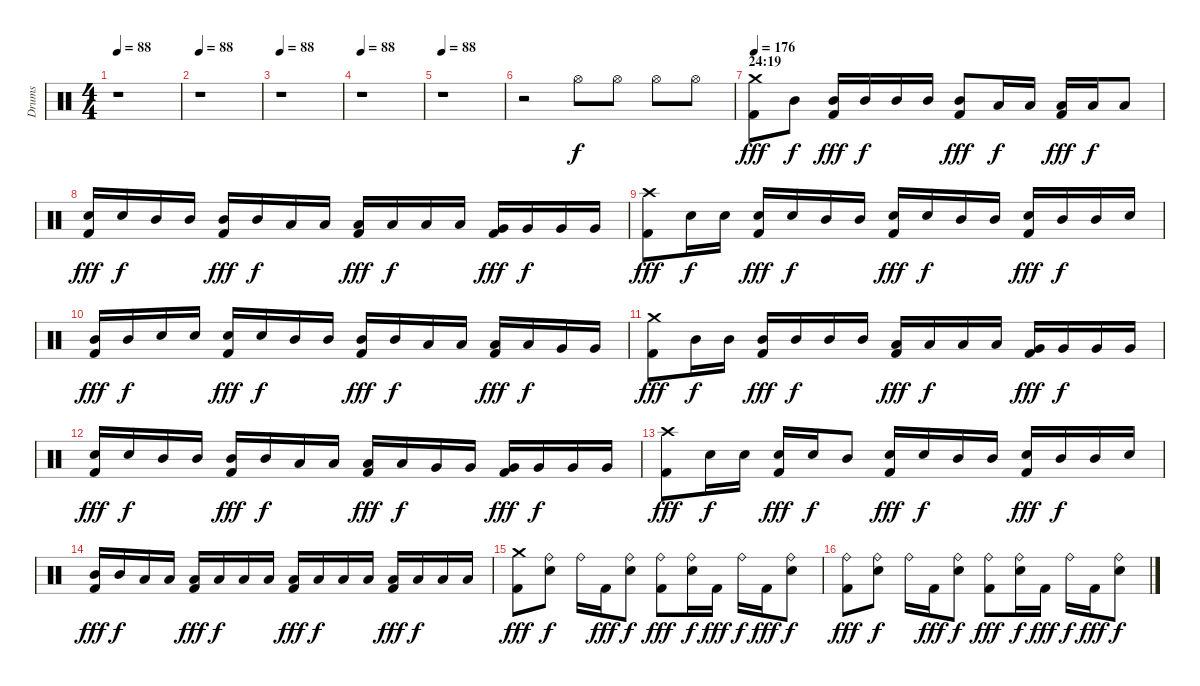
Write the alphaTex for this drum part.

\track ("Drums" "Drums") {instrument percussion}
\staff {score}
\articulation defaults
\ts (4 4)
\tempo 88
\clef neutral
\ks c
r.1{dy f} |
\tempo 88
r.1 |
\tempo 88
r.1 |
\tempo 88
r.1 |
\tempo 88
r.1 |
r.2 "Hi-Hat (open)".8 "Hi-Hat (open)".8 "Hi-Hat (open)".8 "Hi-Hat (open)".8 |
\section ("" "24:19")
\tempo 176
("Crash medium (hit)" "Kick (hit) 2").8{dy fff} "Mid Tom (hit)".8{dy f} ("Mid Tom (hit)" "Kick (hit) 2").16{dy fff} "Mid Tom (hit)".16{dy f} "Mid Tom (hit)".16 "Mid Tom (hit)".16 ("Mid Tom (hit)" "Kick (hit) 2").8{dy fff} "Low Tom (hit)".16{dy f} "Low Tom (hit)".16 ("Low Tom (hit)" "Kick (hit) 2").16{dy fff} "Low Tom (hit)".16{dy f} "Low Tom (hit)".8 |
("Snare (hit) 2" "Kick (hit) 2").16{dy fff} "Snare (hit) 2".16{dy f} "Mid Tom (hit)".16 "Mid Tom (hit)".16 ("Mid Tom (hit)" "Kick (hit) 2").16{dy fff} "Mid Tom (hit)".16{dy f} "Low Tom (hit)".16 "Low Tom (hit)".16 ("Low Tom (hit)" "Kick (hit) 2").16{dy fff} "Low Tom (hit)".16{dy f} "Low Tom (hit)".16 "Low Tom (hit)".16 ("Very Low Tom (hit)" "Kick (hit) 2").16{dy fff} "Very Low Tom (hit)".16{dy f} "Very Low Tom (hit)".16 "Very Low Tom (hit)".16 |
("Crash high (hit)" "Kick (hit) 2").8{dy fff} "Snare (hit) 2".16{dy f} "Snare (hit) 2".16 ("Snare (hit) 2" "Kick (hit) 2").16{dy fff} "Snare (hit) 2".16{dy f} "Mid Tom (hit)".16 "Mid Tom (hit)".16 ("Snare (hit) 2" "Kick (hit) 2").16{dy fff} "Snare (hit) 2".16{dy f} "Mid Tom (hit)".16 "Mid Tom (hit)".16 ("Snare (hit) 2" "Kick (hit) 2").16{dy fff} "Mid Tom (hit)".16{dy f} "Mid Tom (hit)".16 "Snare (hit) 2".16 |
("Mid Tom (hit)" "Kick (hit) 2").16{dy fff} "Mid Tom (hit)".16{dy f} "Snare (hit) 2".16 "Snare (hit) 2".16 ("Snare (hit) 2" "Kick (hit) 2").16{dy fff} "Snare (hit) 2".16{dy f} "Mid Tom (hit)".16 "Mid Tom (hit)".16 ("Mid Tom (hit)" "Kick (hit) 2").16{dy fff} "Mid Tom (hit)".16{dy f} "Low Tom (hit)".16 "Low Tom (hit)".16 ("Low Tom (hit)" "Kick (hit) 2").16{dy fff} "Low Tom (hit)".16{dy f} "Very Low Tom (hit)".16 "Very Low Tom (hit)".16 |
("Crash medium (hit)" "Kick (hit) 2").8{dy fff} "Mid Tom (hit)".16{dy f} "Mid Tom (hit)".16 ("Mid Tom (hit)" "Kick (hit) 2").16{dy fff} "Mid Tom (hit)".16{dy f} "Mid Tom (hit)".16 "Mid Tom (hit)".16 ("Low Tom (hit)" "Kick (hit) 2").16{dy fff} "Low Tom (hit)".16{dy f} "Low Tom (hit)".16 "Low Tom (hit)".16 ("Very Low Tom (hit)" "Kick (hit) 2").16{dy fff} "Very Low Tom (hit)".16{dy f} "Very Low Tom (hit)".16 "Very Low Tom (hit)".16 |
("Snare (hit) 2" "Kick (hit) 2").16{dy fff} "Snare (hit) 2".16{dy f} "Mid Tom (hit)".16 "Mid Tom (hit)".16 ("Mid Tom (hit)" "Kick (hit) 2").16{dy fff} "Mid Tom (hit)".16{dy f} "Low Tom (hit)".16 "Low Tom (hit)".16 ("Low Tom (hit)" "Kick (hit) 2").16{dy fff} "Low Tom (hit)".16{dy f} "Very Low Tom (hit)".16 "Very Low Tom (hit)".16 ("Very Low Tom (hit)" "Kick (hit) 2").16{dy fff} "Very Low Tom (hit)".16{dy f} "Very Low Tom (hit)".16 "Very Low Tom (hit)".16 |
("Crash high (hit)" "Kick (hit) 2").8{dy fff} "Snare (hit) 2".16{dy f} "Snare (hit) 2".16 ("Snare (hit) 2" "Kick (hit) 2").16{dy fff} "Snare (hit) 2".16{dy f} "Mid Tom (hit)".8 ("Snare (hit) 2" "Kick (hit) 2").16{dy fff} "Snare (hit) 2".16{dy f} "Mid Tom (hit)".16 "Mid Tom (hit)".16 ("Snare (hit) 2" "Kick (hit) 2").16{dy fff} "Mid Tom (hit)".16{dy f} "Mid Tom (hit)".16 "Snare (hit) 2".16 |
("Mid Tom (hit)" "Kick (hit) 2").16{dy fff} "Mid Tom (hit)".16{dy f} "Low Tom (hit)".16 "Low Tom (hit)".16 ("Low Tom (hit)" "Kick (hit) 2").16{dy fff} "Low Tom (hit)".16{dy f} "Low Tom (hit)".16 "Low Tom (hit)".16 ("Low Tom (hit)" "Kick (hit) 2").16{dy fff} "Low Tom (hit)".16{dy f} "Low Tom (hit)".16 "Low Tom (hit)".16 ("Low Tom (hit)" "Kick (hit) 2").16{dy fff} "Low Tom (hit)".16{dy f} "Low Tom (hit)".16 "Low Tom (hit)".16 |
("Crash medium (hit)" "Kick (hit) 2").8{dy fff} ("Ride (bell)" "Snare (hit) 2").8{dy f} "Ride (bell)".16 "Kick (hit) 2".16{dy fff} ("Ride (bell)" "Snare (hit) 2").8{dy f} ("Ride (bell)" "Kick (hit) 2").8{dy fff} ("Ride (bell)" "Snare (hit) 2").16{dy f} "Kick (hit) 2".16{dy fff} "Ride (bell)".16{dy f} "Kick (hit) 2".16{dy fff} ("Ride (bell)" "Snare (hit) 2").8{dy f} |
("Ride (bell)" "Kick (hit) 2").8{dy fff} ("Ride (bell)" "Snare (hit) 2").8{dy f} "Ride (bell)".16 "Kick (hit) 2".16{dy fff} ("Ride (bell)" "Snare (hit) 2").8{dy f} ("Ride (bell)" "Kick (hit) 2").8{dy fff} ("Ride (bell)" "Snare (hit) 2").16{dy f} "Kick (hit) 2".16{dy fff} "Ride (bell)".16{dy f} "Kick (hit) 2".16{dy fff} ("Ride (bell)" "Snare (hit) 2").8{dy f}
